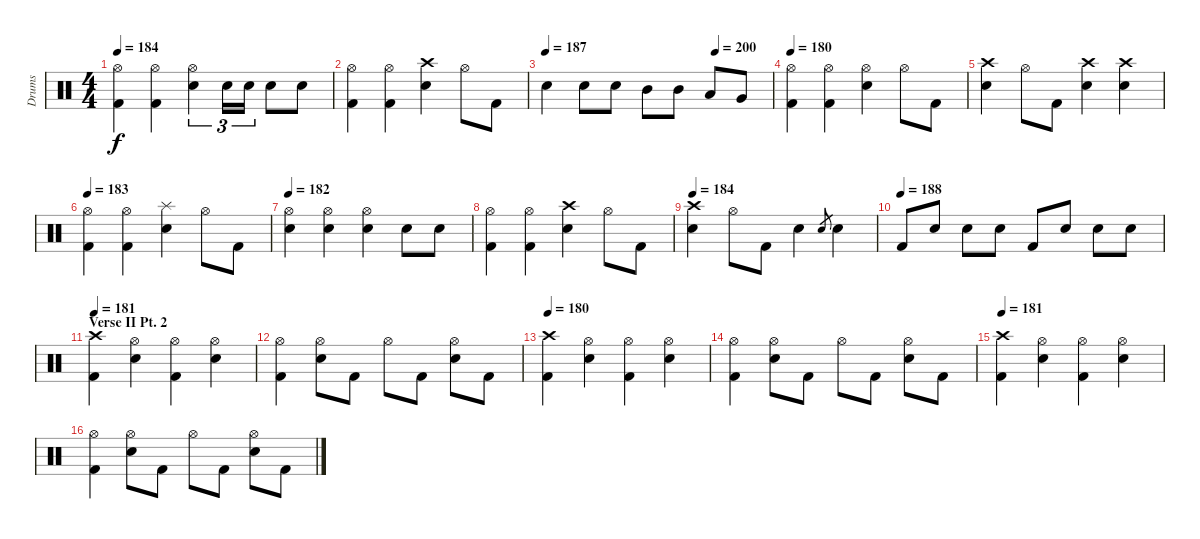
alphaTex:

\track ("Drums" "Drums") {instrument percussion}
\staff {score}
\articulation defaults
\ts (4 4)
\tempo 184
\clef neutral
\ks c
("Kick (hit) 2" "Hi-Hat (open)").4{dy f} ("Kick (hit) 2" "Hi-Hat (open)").4 ("Snare (hit) 2" "Hi-Hat (open)").4{tu (3 2)} "Snare (hit) 2".16{tu (3 2)} "Snare (hit) 2".16{tu (3 2)} "Snare (hit) 2".8 "Snare (hit) 2".8 |
("Kick (hit) 2" "Hi-Hat (open)").4 ("Kick (hit) 2" "Hi-Hat (open)").4 ("Snare (hit) 2" "Crash high (hit)").4 "Hi-Hat (open)".8 "Kick (hit) 2".8 |
\tempo 187
\tempo (200 0.75)
"Snare (hit) 2".4 "Snare (hit) 2".8 "Snare (hit) 2".8 "Mid Tom (hit)".8 "Mid Tom (hit)".8 "Low Tom (hit)".8 "Very Low Tom (hit)".8 |
\tempo 180
("Kick (hit) 2" "Hi-Hat (open)").4 ("Kick (hit) 2" "Hi-Hat (open)").4 ("Snare (hit) 2" "Hi-Hat (open)").4 "Hi-Hat (open)".8 "Kick (hit) 2".8 |
("Snare (hit) 2" "Crash high (hit)").4 "Hi-Hat (open)".8 "Kick (hit) 2".8 ("Snare (hit) 2" "Crash high (hit)").4 ("Snare (hit) 2" "Crash high (hit)").4 |
\tempo 183
("Kick (hit) 2" "Hi-Hat (open)").4 ("Kick (hit) 2" "Hi-Hat (open)").4 ("Snare (hit) 2" "Splash (hit)").4 "Hi-Hat (open)".8 "Kick (hit) 2".8 |
\tempo 182
("Hi-Hat (open)" "Snare (hit) 2").4 ("Hi-Hat (open)" "Snare (hit) 2").4 ("Snare (hit) 2" "Hi-Hat (open)").4 "Snare (hit) 2".8 "Snare (hit) 2".8 |
("Kick (hit) 2" "Hi-Hat (open)").4 ("Kick (hit) 2" "Hi-Hat (open)").4 ("Snare (hit) 2" "Crash high (hit)").4 "Hi-Hat (open)".8 "Kick (hit) 2".8 |
\tempo 184
("Snare (hit) 2" "Crash high (hit)").4 "Hi-Hat (open)".8 "Kick (hit) 2".8 "Snare (hit) 2".4 "Snare (hit)".8{gr} "Snare (hit) 2".4 |
\tempo (188)
"Kick (hit) 2".8 "Snare (hit) 2".8 "Snare (hit) 2".8 "Snare (hit) 2".8 "Kick (hit) 2".8 "Snare (hit) 2".8 "Snare (hit) 2".8 "Snare (hit) 2".8 |
\section ("" "Verse II Pt. 2")
\tempo 181
("Crash high (hit)" "Kick (hit) 2").4 ("Snare (hit) 2" "Hi-Hat (open)").4 ("Hi-Hat (open)" "Kick (hit) 2").4 ("Hi-Hat (open)" "Snare (hit) 2").4 |
("Hi-Hat (open)" "Kick (hit) 2").4 ("Hi-Hat (open)" "Snare (hit) 2").8 "Kick (hit) 2".8 "Hi-Hat (open)".8 "Kick (hit) 2".8 ("Snare (hit) 2" "Hi-Hat (open)").8 "Kick (hit) 2".8 |
\tempo 180
("Crash high (hit)" "Kick (hit) 2").4 ("Snare (hit) 2" "Hi-Hat (open)").4 ("Hi-Hat (open)" "Kick (hit) 2").4 ("Hi-Hat (open)" "Snare (hit) 2").4 |
("Hi-Hat (open)" "Kick (hit) 2").4 ("Hi-Hat (open)" "Snare (hit) 2").8 "Kick (hit) 2".8 "Hi-Hat (open)".8 "Kick (hit) 2".8 ("Snare (hit) 2" "Hi-Hat (open)").8 "Kick (hit) 2".8 |
\tempo 181
("Crash high (hit)" "Kick (hit) 2").4 ("Snare (hit) 2" "Hi-Hat (open)").4 ("Hi-Hat (open)" "Kick (hit) 2").4 ("Hi-Hat (open)" "Snare (hit) 2").4 |
("Hi-Hat (open)" "Kick (hit) 2").4 ("Hi-Hat (open)" "Snare (hit) 2").8 "Kick (hit) 2".8 "Hi-Hat (open)".8 "Kick (hit) 2".8 ("Snare (hit) 2" "Hi-Hat (open)").8 "Kick (hit) 2".8
